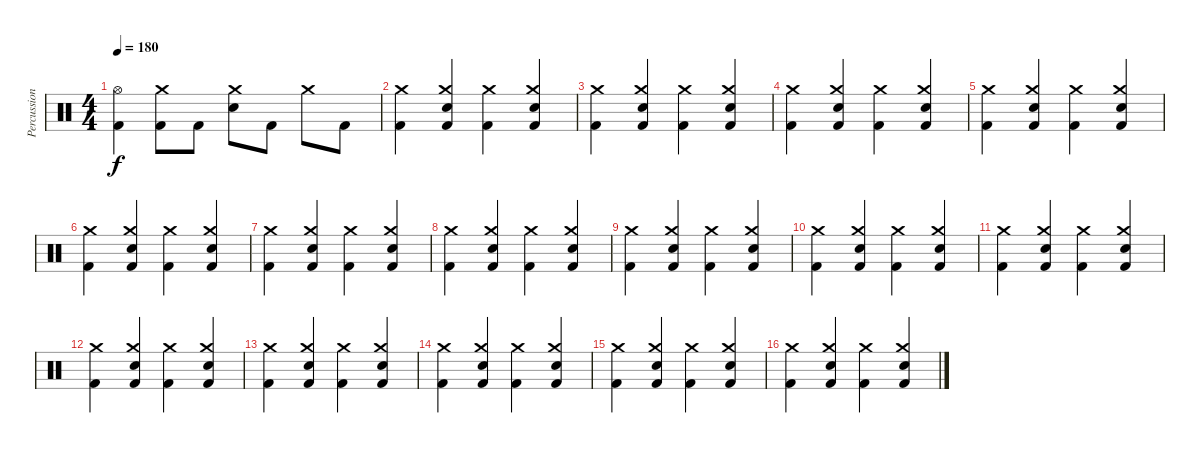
\track ("Percussion" "Percussion") {instrument percussion}
\staff {score}
\articulation defaults
\ts (4 4)
\tempo 180
\clef neutral
\ks c
("Hi-Hat (open)" "Kick (hit) 2").4{dy f} ("Crash medium (hit)" "Kick (hit) 2").8 "Kick (hit) 2".8 ("Crash medium (hit)" "Electric Snare (hit)").8 "Kick (hit) 2".8 "Crash medium (hit)".8 "Kick (hit) 2".8 |
("Crash medium (hit)" "Kick (hit) 2").4 ("Crash medium (hit)" "Electric Snare (hit)" "Kick (hit) 2").4 ("Crash medium (hit)" "Kick (hit) 2").4 ("Crash medium (hit)" "Electric Snare (hit)" "Kick (hit) 2").4 |
("Crash medium (hit)" "Kick (hit) 2").4 ("Crash medium (hit)" "Electric Snare (hit)" "Kick (hit) 2").4 ("Crash medium (hit)" "Kick (hit) 2").4 ("Crash medium (hit)" "Electric Snare (hit)" "Kick (hit) 2").4 |
("Crash medium (hit)" "Kick (hit) 2").4 ("Crash medium (hit)" "Electric Snare (hit)" "Kick (hit) 2").4 ("Crash medium (hit)" "Kick (hit) 2").4 ("Crash medium (hit)" "Electric Snare (hit)" "Kick (hit) 2").4 |
("Crash medium (hit)" "Kick (hit) 2").4 ("Crash medium (hit)" "Electric Snare (hit)" "Kick (hit) 2").4 ("Crash medium (hit)" "Kick (hit) 2").4 ("Crash medium (hit)" "Electric Snare (hit)" "Kick (hit) 2").4 |
("Crash medium (hit)" "Kick (hit) 2").4 ("Crash medium (hit)" "Electric Snare (hit)" "Kick (hit) 2").4 ("Crash medium (hit)" "Kick (hit) 2").4 ("Crash medium (hit)" "Electric Snare (hit)" "Kick (hit) 2").4 |
("Crash medium (hit)" "Kick (hit) 2").4 ("Crash medium (hit)" "Electric Snare (hit)" "Kick (hit) 2").4 ("Crash medium (hit)" "Kick (hit) 2").4 ("Crash medium (hit)" "Electric Snare (hit)" "Kick (hit) 2").4 |
("Crash medium (hit)" "Kick (hit) 2").4 ("Crash medium (hit)" "Electric Snare (hit)" "Kick (hit) 2").4 ("Crash medium (hit)" "Kick (hit) 2").4 ("Crash medium (hit)" "Electric Snare (hit)" "Kick (hit) 2").4 |
("Crash medium (hit)" "Kick (hit) 2").4 ("Crash medium (hit)" "Electric Snare (hit)" "Kick (hit) 2").4 ("Crash medium (hit)" "Kick (hit) 2").4 ("Crash medium (hit)" "Electric Snare (hit)" "Kick (hit) 2").4 |
("Crash medium (hit)" "Kick (hit) 2").4 ("Crash medium (hit)" "Electric Snare (hit)" "Kick (hit) 2").4 ("Crash medium (hit)" "Kick (hit) 2").4 ("Crash medium (hit)" "Electric Snare (hit)" "Kick (hit) 2").4 |
("Crash medium (hit)" "Kick (hit) 2").4 ("Crash medium (hit)" "Electric Snare (hit)" "Kick (hit) 2").4 ("Crash medium (hit)" "Kick (hit) 2").4 ("Crash medium (hit)" "Electric Snare (hit)" "Kick (hit) 2").4 |
("Crash medium (hit)" "Kick (hit) 2").4 ("Crash medium (hit)" "Electric Snare (hit)" "Kick (hit) 2").4 ("Crash medium (hit)" "Kick (hit) 2").4 ("Crash medium (hit)" "Electric Snare (hit)" "Kick (hit) 2").4 |
("Crash medium (hit)" "Kick (hit) 2").4 ("Crash medium (hit)" "Electric Snare (hit)" "Kick (hit) 2").4 ("Crash medium (hit)" "Kick (hit) 2").4 ("Crash medium (hit)" "Electric Snare (hit)" "Kick (hit) 2").4 |
("Crash medium (hit)" "Kick (hit) 2").4 ("Crash medium (hit)" "Electric Snare (hit)" "Kick (hit) 2").4 ("Crash medium (hit)" "Kick (hit) 2").4 ("Crash medium (hit)" "Electric Snare (hit)" "Kick (hit) 2").4 |
("Crash medium (hit)" "Kick (hit) 2").4 ("Crash medium (hit)" "Electric Snare (hit)" "Kick (hit) 2").4 ("Crash medium (hit)" "Kick (hit) 2").4 ("Crash medium (hit)" "Electric Snare (hit)" "Kick (hit) 2").4 |
("Crash medium (hit)" "Kick (hit) 2").4 ("Crash medium (hit)" "Electric Snare (hit)" "Kick (hit) 2").4 ("Crash medium (hit)" "Kick (hit) 2").4 ("Crash medium (hit)" "Electric Snare (hit)" "Kick (hit) 2").4
